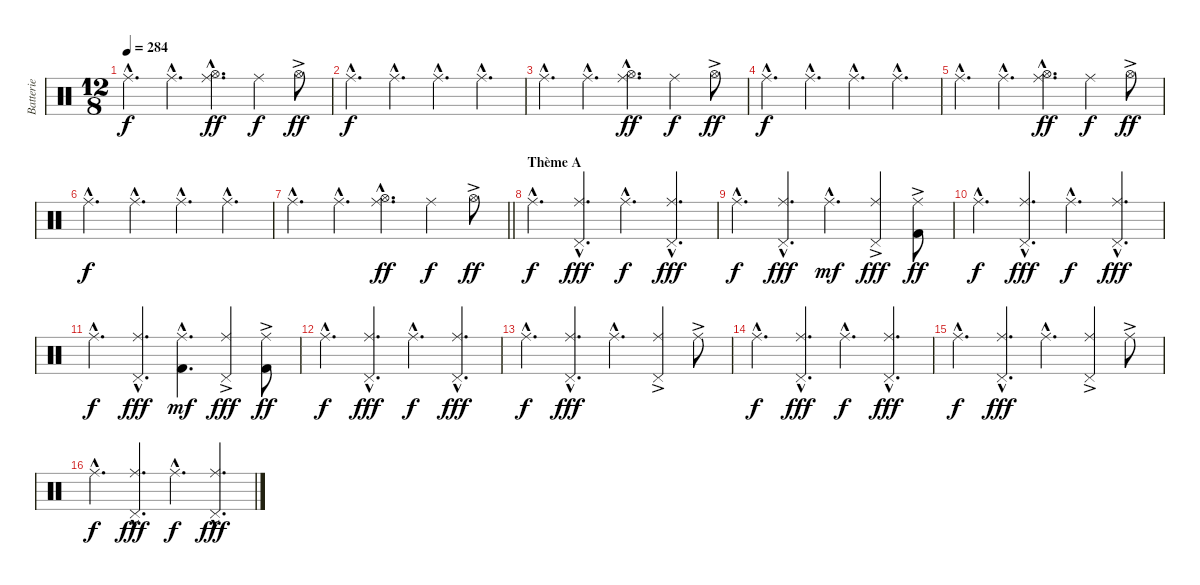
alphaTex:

\track ("Batterie" "Batterie") {instrument percussion}
\staff {score}
\articulation defaults
\ts (12 8)
\tempo 284
\clef neutral
\ks c "Ride (middle)"{hac}.4{d dy f} "Ride (middle)"{hac}.4{d}
("Ride (middle)"{hac} "Hi-Hat (open)"{hac}).4{d dy ff} "Ride (middle)".4{dy f} "Hi-Hat (open)"{ac}.8{dy ff} |
"Ride (middle)"{hac}.4{d dy f} "Ride (middle)"{hac}.4{d} "Ride (middle)"{hac}.4{d} "Ride (middle)"{hac}.4{d} |
"Ride (middle)"{hac}.4{d} "Ride (middle)"{hac}.4{d} ("Ride (middle)"{hac} "Hi-Hat (open)"{hac}).4{d dy ff} "Ride (middle)".4{dy f} "Hi-Hat (open)"{ac}.8{dy ff} |
"Ride (middle)"{hac}.4{d dy f} "Ride (middle)"{hac}.4{d} "Ride (middle)"{hac}.4{d} "Ride (middle)"{hac}.4{d} |
"Ride (middle)"{hac}.4{d} "Ride (middle)"{hac}.4{d} ("Ride (middle)"{hac} "Hi-Hat (open)"{hac}).4{d dy ff} "Ride (middle)".4{dy f} "Hi-Hat (open)"{ac}.8{dy ff} |
"Ride (middle)"{hac}.4{d dy f} "Ride (middle)"{hac}.4{d} "Ride (middle)"{hac}.4{d} "Ride (middle)"{hac}.4{d} |
\barLineRight lightlight "Ride (middle)"{hac}.4{d} "Ride (middle)"{hac}.4{d}
("Ride (middle)"{hac} "Hi-Hat (open)"{hac}).4{d dy ff} "Ride (middle)".4{dy f} "Hi-Hat (open)"{ac}.8{dy ff} |
\section ("" "Thème A")
"Ride (middle)"{hac}.4{d dy f volume 12 balance 8} ("Ride (middle)"{hac} "Pedal Hi-Hat (hit)"{hac}).4{d dy fff} "Ride (middle)"{hac}.4{d dy f} ("Ride (middle)"{hac} "Pedal Hi-Hat (hit)"{hac}).4{d dy fff} |
"Ride (middle)"{hac}.4{d dy f} ("Ride (middle)"{hac} "Pedal Hi-Hat (hit)"{hac}).4{d dy fff} "Ride (middle)"{hac}.4{d dy mf} ("Ride (middle)" "Pedal Hi-Hat (hit)"{ac}).4{dy fff} ("Ride (middle)"{ac} "Kick (hit) 2"{ac}).8{dy ff} |
"Ride (middle)"{hac}.4{d dy f} ("Ride (middle)"{hac} "Pedal Hi-Hat (hit)"{hac}).4{d dy fff} "Ride (middle)"{hac}.4{d dy f} ("Ride (middle)"{hac} "Pedal Hi-Hat (hit)"{hac}).4{d dy fff} |
"Ride (middle)"{hac}.4{d dy f} ("Ride (middle)"{hac} "Pedal Hi-Hat (hit)"{hac}).4{d dy fff} ("Ride (middle)"{hac} "Kick (hit) 2"{hac}).4{d dy mf} ("Ride (middle)" "Pedal Hi-Hat (hit)"{ac}).4{dy fff} ("Ride (middle)"{ac} "Kick (hit) 2"{ac}).8{dy ff} |
"Ride (middle)"{hac}.4{d dy f} ("Ride (middle)"{hac} "Pedal Hi-Hat (hit)"{hac}).4{d dy fff} "Ride (middle)"{hac}.4{d dy f} ("Ride (middle)"{hac} "Pedal Hi-Hat (hit)"{hac}).4{d dy fff} |
"Ride (middle)"{hac}.4{d dy f} ("Ride (middle)"{hac} "Pedal Hi-Hat (hit)"{hac}).4{d dy fff} "Ride (middle)"{hac}.4{d} ("Ride (middle)" "Pedal Hi-Hat (hit)"{ac}).4 "Ride (middle)"{ac}.8 |
"Ride (middle)"{hac}.4{d dy f} ("Ride (middle)"{hac} "Pedal Hi-Hat (hit)"{hac}).4{d dy fff} "Ride (middle)"{hac}.4{d dy f} ("Ride (middle)"{hac} "Pedal Hi-Hat (hit)"{hac}).4{d dy fff} |
"Ride (middle)"{hac}.4{d dy f} ("Ride (middle)"{hac} "Pedal Hi-Hat (hit)"{hac}).4{d dy fff} "Ride (middle)"{hac}.4{d} ("Ride (middle)" "Pedal Hi-Hat (hit)"{ac}).4 "Ride (middle)"{ac}.8 |
"Ride (middle)"{hac}.4{d dy f volume 12 balance 8} ("Ride (middle)"{hac} "Pedal Hi-Hat (hit)"{hac}).4{d dy fff} "Ride (middle)"{hac}.4{d dy f} ("Ride (middle)"{hac} "Pedal Hi-Hat (hit)"{hac}).4{d dy fff}
